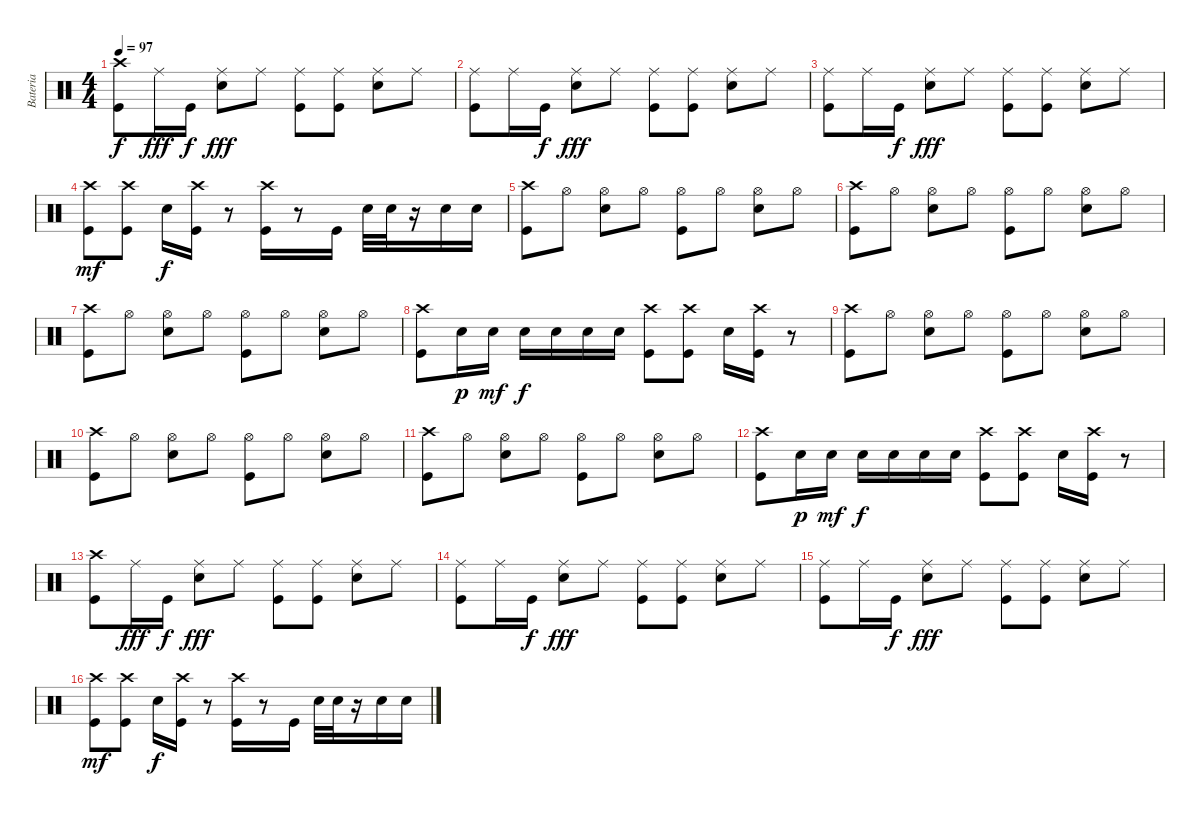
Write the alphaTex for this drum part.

\track ("Bateria" "Bateria") {instrument percussion}
\staff {score}
\articulation defaults
\ts (4 4)
\tempo 97
\clef neutral
\ks c
("Crash high (hit)" "Kick (hit)").8{dy f} "Ride (middle)".16{dy fff} "Kick (hit)".16{dy f} ("Electric Snare (hit)" "Ride (middle)").8{dy fff} "Ride (middle)".8 ("Kick (hit)" "Ride (middle)").8 ("Kick (hit)" "Ride (middle)").8 ("Electric Snare (hit)" "Ride (middle)").8 "Ride (middle)".8 |
("Kick (hit)" "Ride (middle)").8 "Ride (middle)".16 "Kick (hit)".16{dy f} ("Electric Snare (hit)" "Ride (middle)").8{dy fff} "Ride (middle)".8 ("Kick (hit)" "Ride (middle)").8 ("Kick (hit)" "Ride (middle)").8 ("Electric Snare (hit)" "Ride (middle)").8 "Ride (middle)".8 |
("Kick (hit)" "Ride (middle)").8 "Ride (middle)".16 "Kick (hit)".16{dy f} ("Electric Snare (hit)" "Ride (middle)").8{dy fff} "Ride (middle)".8 ("Kick (hit)" "Ride (middle)").8 ("Kick (hit)" "Ride (middle)").8 ("Electric Snare (hit)" "Ride (middle)").8 "Ride (middle)".8 |
("Crash high (hit)" "Kick (hit)").8{dy mf} ("Crash high (hit)" "Kick (hit)").8 "Electric Snare (hit)".16{dy f} ("Crash high (hit)" "Kick (hit)").16 r.8 ("Crash high (hit)" "Kick (hit)").16 r.8 "Kick (hit)".16 "Electric Snare (hit)".32 "Electric Snare (hit)".32 r.16 "Electric Snare (hit)".16 "Electric Snare (hit)".16 |
("Crash high (hit)" "Kick (hit)").8 "Hi-Hat (open)".8 ("Electric Snare (hit)" "Hi-Hat (open)").8 "Hi-Hat (open)".8 ("Kick (hit)" "Hi-Hat (open)").8 "Hi-Hat (open)".8 ("Electric Snare (hit)" "Hi-Hat (open)").8 "Hi-Hat (open)".8 |
("Crash high (hit)" "Kick (hit)").8 "Hi-Hat (open)".8 ("Electric Snare (hit)" "Hi-Hat (open)").8 "Hi-Hat (open)".8 ("Kick (hit)" "Hi-Hat (open)").8 "Hi-Hat (open)".8 ("Electric Snare (hit)" "Hi-Hat (open)").8 "Hi-Hat (open)".8 |
("Crash high (hit)" "Kick (hit)").8 "Hi-Hat (open)".8 ("Electric Snare (hit)" "Hi-Hat (open)").8 "Hi-Hat (open)".8 ("Kick (hit)" "Hi-Hat (open)").8 "Hi-Hat (open)".8 ("Electric Snare (hit)" "Hi-Hat (open)").8 "Hi-Hat (open)".8 |
("Crash high (hit)" "Kick (hit)").8 "Electric Snare (hit)".16{dy p} "Electric Snare (hit)".16{dy mf} "Electric Snare (hit)".16{dy f} "Electric Snare (hit)".16 "Electric Snare (hit)".16 "Electric Snare (hit)".16 ("Crash high (hit)" "Kick (hit)").8 ("Crash high (hit)" "Kick (hit)").8 "Electric Snare (hit)".16 ("Crash high (hit)" "Kick (hit)").16 r.8 |
("Crash high (hit)" "Kick (hit)").8 "Hi-Hat (open)".8 ("Electric Snare (hit)" "Hi-Hat (open)").8 "Hi-Hat (open)".8 ("Kick (hit)" "Hi-Hat (open)").8 "Hi-Hat (open)".8 ("Electric Snare (hit)" "Hi-Hat (open)").8 "Hi-Hat (open)".8 |
("Crash high (hit)" "Kick (hit)").8 "Hi-Hat (open)".8 ("Electric Snare (hit)" "Hi-Hat (open)").8 "Hi-Hat (open)".8 ("Kick (hit)" "Hi-Hat (open)").8 "Hi-Hat (open)".8 ("Electric Snare (hit)" "Hi-Hat (open)").8 "Hi-Hat (open)".8 |
("Crash high (hit)" "Kick (hit)").8 "Hi-Hat (open)".8 ("Electric Snare (hit)" "Hi-Hat (open)").8 "Hi-Hat (open)".8 ("Kick (hit)" "Hi-Hat (open)").8 "Hi-Hat (open)".8 ("Electric Snare (hit)" "Hi-Hat (open)").8 "Hi-Hat (open)".8 |
("Crash high (hit)" "Kick (hit)").8 "Electric Snare (hit)".16{dy p} "Electric Snare (hit)".16{dy mf} "Electric Snare (hit)".16{dy f} "Electric Snare (hit)".16 "Electric Snare (hit)".16 "Electric Snare (hit)".16 ("Crash high (hit)" "Kick (hit)").8 ("Crash high (hit)" "Kick (hit)").8 "Electric Snare (hit)".16 ("Crash high (hit)" "Kick (hit)").16 r.8 |
("Crash high (hit)" "Kick (hit)").8 "Ride (middle)".16{dy fff} "Kick (hit)".16{dy f} ("Electric Snare (hit)" "Ride (middle)").8{dy fff} "Ride (middle)".8 ("Kick (hit)" "Ride (middle)").8 ("Kick (hit)" "Ride (middle)").8 ("Electric Snare (hit)" "Ride (middle)").8 "Ride (middle)".8 |
("Kick (hit)" "Ride (middle)").8 "Ride (middle)".16 "Kick (hit)".16{dy f} ("Electric Snare (hit)" "Ride (middle)").8{dy fff} "Ride (middle)".8 ("Kick (hit)" "Ride (middle)").8 ("Kick (hit)" "Ride (middle)").8 ("Electric Snare (hit)" "Ride (middle)").8 "Ride (middle)".8 |
("Kick (hit)" "Ride (middle)").8 "Ride (middle)".16 "Kick (hit)".16{dy f} ("Electric Snare (hit)" "Ride (middle)").8{dy fff} "Ride (middle)".8 ("Kick (hit)" "Ride (middle)").8 ("Kick (hit)" "Ride (middle)").8 ("Electric Snare (hit)" "Ride (middle)").8 "Ride (middle)".8 |
("Crash high (hit)" "Kick (hit)").8{dy mf} ("Crash high (hit)" "Kick (hit)").8 "Electric Snare (hit)".16{dy f} ("Crash high (hit)" "Kick (hit)").16 r.8 ("Crash high (hit)" "Kick (hit)").16 r.8 "Kick (hit)".16 "Electric Snare (hit)".32 "Electric Snare (hit)".32 r.16 "Electric Snare (hit)".16 "Electric Snare (hit)".16
